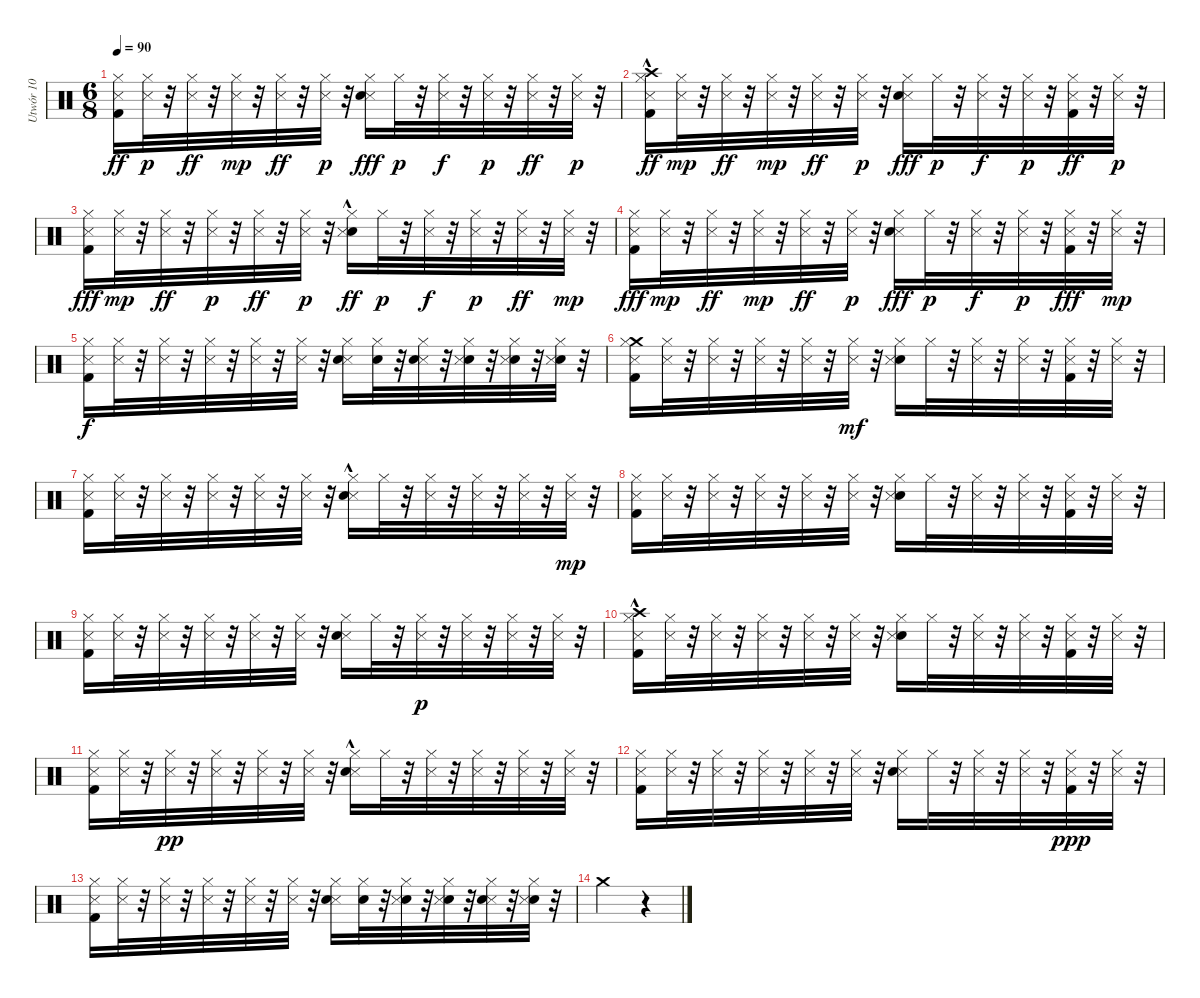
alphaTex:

\track ("Utwór 10" "Utwór 10") {instrument percussion}
\staff {score}
\articulation defaults
\ts (6 8)
\tempo 90
\clef neutral
\ks c
("Kick (hit) 2" "Snare (side stick) 3" "Hi-Hat (closed)").16{dy ff} ("Snare (side stick) 3" "Hi-Hat (closed)").32{dy p} r.32 ("Hi-Hat (closed)" "Snare (side stick) 3").32{dy ff} r.32 ("Hi-Hat (closed)" "Snare (side stick) 3").32{dy mp} r.32 ("Hi-Hat (closed)" "Snare (side stick) 3").32{dy ff} r.32 ("Snare (side stick) 3" "Hi-Hat (closed)").32{dy p} r.32 ("Snare (side stick) 3" "Snare (hit) 2" "Hi-Hat (closed)").16{dy fff} "Hi-Hat (closed)".32{dy p} r.32 ("Snare (side stick) 3" "Hi-Hat (closed)").32{dy f} r.32 ("Hi-Hat (closed)" "Snare (side stick) 3").32{dy p} r.32 ("Snare (side stick) 3" "Hi-Hat (closed)").32{dy ff} r.32 ("Snare (side stick) 3" "Hi-Hat (closed)").32{dy p} r.32 |
("Kick (hit) 2" "Hi-Hat (closed)" "Snare (side stick) 3" "Crash high (hit)"{hac}).16{dy ff} ("Hi-Hat (closed)" "Snare (side stick) 3").32{dy mp} r.32 ("Snare (side stick) 3" "Hi-Hat (closed)").32{dy ff} r.32 ("Hi-Hat (closed)" "Snare (side stick) 3").32{dy mp} r.32 ("Hi-Hat (closed)" "Snare (side stick) 3").32{dy ff} r.32 ("Snare (side stick) 3" "Hi-Hat (closed)").32{dy p} r.32 ("Snare (side stick) 3" "Hi-Hat (closed)" "Snare (hit) 2").16{dy fff} "Hi-Hat (closed)".32{dy p} r.32 ("Hi-Hat (closed)" "Snare (side stick) 3").32{dy f} r.32 ("Hi-Hat (closed)" "Snare (side stick) 3").32{dy p} r.32 ("Kick (hit) 2" "Snare (side stick) 3" "Hi-Hat (closed)").32{dy ff} r.32 ("Snare (side stick) 3" "Hi-Hat (closed)").32{dy p} r.32 |
("Hi-Hat (closed)" "Snare (side stick) 3" "Kick (hit) 2").16{dy fff} ("Hi-Hat (closed)" "Snare (side stick) 3").32{dy mp} r.32 ("Hi-Hat (closed)" "Snare (side stick) 3").32{dy ff} r.32 ("Snare (side stick) 3" "Hi-Hat (closed)").32{dy p} r.32 ("Hi-Hat (closed)" "Snare (side stick) 3").32{dy ff} r.32 ("Hi-Hat (closed)" "Snare (side stick) 3").32{dy p} r.32 ("Hi-Hat (closed)" "Snare (hit) 2"{hac} "Snare (side stick) 3").16{dy ff} "Hi-Hat (closed)".32{dy p} r.32 ("Snare (side stick) 3" "Hi-Hat (closed)").32{dy f} r.32 ("Hi-Hat (closed)" "Snare (side stick) 3").32{dy p} r.32 ("Snare (side stick) 3" "Hi-Hat (closed)").32{dy ff} r.32 ("Hi-Hat (closed)" "Snare (side stick) 3").32{dy mp} r.32 |
("Hi-Hat (closed)" "Snare (side stick) 3" "Kick (hit) 2").16{dy fff} ("Hi-Hat (closed)" "Snare (side stick) 3").32{dy mp} r.32 ("Hi-Hat (closed)" "Snare (side stick) 3").32{dy ff} r.32 ("Hi-Hat (closed)" "Snare (side stick) 3").32{dy mp} r.32 ("Hi-Hat (closed)" "Snare (side stick) 3").32{dy ff} r.32 ("Hi-Hat (closed)" "Snare (side stick) 3").32{dy p} r.32 ("Hi-Hat (closed)" "Snare (side stick) 3" "Snare (hit) 2").16{dy fff} "Hi-Hat (closed)".32{dy p} r.32 ("Hi-Hat (closed)" "Snare (side stick) 3").32{dy f} r.32 ("Hi-Hat (closed)" "Snare (side stick) 3").32{dy p} r.32 ("Hi-Hat (closed)" "Snare (side stick) 3" "Kick (hit) 2").32{dy fff} r.32 ("Hi-Hat (closed)" "Snare (side stick) 3").32{dy mp} r.32 |
("Hi-Hat (closed)" "Snare (side stick) 3" "Kick (hit) 2").16{dy f} ("Snare (side stick) 3" "Hi-Hat (closed)").32 r.32 ("Hi-Hat (closed)" "Snare (side stick) 3").32 r.32 ("Hi-Hat (closed)" "Snare (side stick) 3").32 r.32 ("Snare (side stick) 3" "Hi-Hat (closed)").32 r.32 ("Hi-Hat (closed)" "Snare (side stick) 3").32 r.32 ("Snare (side stick) 3" "Snare (hit) 2" "Hi-Hat (closed)").16 ("Snare (hit) 2" "Hi-Hat (closed)").32 r.32 ("Snare (side stick) 3" "Snare (hit) 2" "Hi-Hat (closed)").32 r.32 ("Hi-Hat (closed)" "Snare (hit) 2" "Snare (side stick) 3").32 r.32 ("Snare (hit) 2" "Snare (side stick) 3" "Hi-Hat (closed)").32 r.32 ("Hi-Hat (closed)" "Snare (hit) 2" "Snare (side stick) 3").32 r.32 |
("Kick (hit) 2" "Crash medium (hit)" "Snare (side stick) 3" "Hi-Hat (closed)").16 ("Snare (side stick) 3" "Hi-Hat (closed)").32 r.32 ("Hi-Hat (closed)" "Snare (side stick) 3").32 r.32 ("Snare (side stick) 3" "Hi-Hat (closed)").32 r.32 ("Snare (side stick) 3" "Hi-Hat (closed)").32 r.32 ("Snare (side stick) 3" "Hi-Hat (closed)").32{dy mf} r.32 ("Hi-Hat (closed)" "Snare (hit) 2" "Snare (side stick) 3").16 "Hi-Hat (closed)".32 r.32 ("Snare (side stick) 3" "Hi-Hat (closed)").32 r.32 ("Hi-Hat (closed)" "Snare (side stick) 3").32 r.32 ("Kick (hit) 2" "Hi-Hat (closed)" "Snare (side stick) 3").32 r.32 ("Hi-Hat (closed)" "Snare (side stick) 3").32 r.32 |
("Kick (hit) 2" "Snare (side stick) 3" "Hi-Hat (closed)").16 ("Snare (side stick) 3" "Hi-Hat (closed)").32 r.32 ("Hi-Hat (closed)" "Snare (side stick) 3").32 r.32 ("Hi-Hat (closed)" "Snare (side stick) 3").32 r.32 ("Hi-Hat (closed)" "Snare (side stick) 3").32 r.32 ("Hi-Hat (closed)" "Snare (side stick) 3").32 r.32 ("Snare (side stick) 3" "Hi-Hat (closed)" "Snare (hit) 2"{hac}).16 "Hi-Hat (closed)".32 r.32 ("Hi-Hat (closed)" "Snare (side stick) 3").32 r.32 ("Hi-Hat (closed)" "Snare (side stick) 3").32 r.32 ("Hi-Hat (closed)" "Snare (side stick) 3").32 r.32 ("Hi-Hat (closed)" "Snare (side stick) 3").32{dy mp} r.32 |
("Kick (hit) 2" "Snare (side stick) 3" "Hi-Hat (closed)").16 ("Snare (side stick) 3" "Hi-Hat (closed)").32 r.32 ("Snare (side stick) 3" "Hi-Hat (closed)").32 r.32 ("Snare (side stick) 3" "Hi-Hat (closed)").32 r.32 ("Snare (side stick) 3" "Hi-Hat (closed)").32 r.32 ("Snare (side stick) 3" "Hi-Hat (closed)").32 r.32 ("Snare (hit) 2" "Hi-Hat (closed)" "Snare (side stick) 3").16 "Hi-Hat (closed)".32 r.32 ("Hi-Hat (closed)" "Snare (side stick) 3").32 r.32 ("Hi-Hat (closed)" "Snare (side stick) 3").32 r.32 ("Snare (side stick) 3" "Kick (hit) 2" "Hi-Hat (closed)").32 r.32 ("Hi-Hat (closed)" "Snare (side stick) 3").32 r.32 |
("Hi-Hat (closed)" "Snare (side stick) 3" "Kick (hit) 2").16 ("Hi-Hat (closed)" "Snare (side stick) 3").32 r.32 ("Snare (side stick) 3" "Hi-Hat (closed)").32 r.32 ("Hi-Hat (closed)" "Snare (side stick) 3").32 r.32 ("Snare (side stick) 3" "Hi-Hat (closed)").32 r.32 ("Snare (side stick) 3" "Hi-Hat (closed)").32 r.32 ("Snare (side stick) 3" "Snare (hit) 2" "Hi-Hat (closed)").16 "Hi-Hat (closed)".32 r.32 ("Hi-Hat (closed)" "Snare (side stick) 3").32{dy p} r.32 ("Snare (side stick) 3" "Hi-Hat (closed)").32 r.32 ("Snare (side stick) 3" "Hi-Hat (closed)").32 r.32 ("Snare (side stick) 3" "Hi-Hat (closed)").32 r.32 |
("Kick (hit) 2" "Snare (side stick) 3" "Crash high (hit)"{hac} "Hi-Hat (closed)").16 ("Snare (side stick) 3" "Hi-Hat (closed)").32 r.32 ("Hi-Hat (closed)" "Snare (side stick) 3").32 r.32 ("Snare (side stick) 3" "Hi-Hat (closed)").32 r.32 ("Snare (side stick) 3" "Hi-Hat (closed)").32 r.32 ("Hi-Hat (closed)" "Snare (side stick) 3").32 r.32 ("Snare (hit) 2" "Hi-Hat (closed)" "Snare (side stick) 3").16 "Hi-Hat (closed)".32 r.32 ("Hi-Hat (closed)" "Snare (side stick) 3").32 r.32 ("Hi-Hat (closed)" "Snare (side stick) 3").32 r.32 ("Kick (hit) 2" "Hi-Hat (closed)" "Snare (side stick) 3").32 r.32 ("Snare (side stick) 3" "Hi-Hat (closed)").32 r.32 |
("Kick (hit) 2" "Snare (side stick) 3" "Hi-Hat (closed)").16 ("Hi-Hat (closed)" "Snare (side stick) 3").32 r.32 ("Hi-Hat (closed)" "Snare (side stick) 3").32{dy pp} r.32 ("Hi-Hat (closed)" "Snare (side stick) 3").32 r.32 ("Snare (side stick) 3" "Hi-Hat (closed)").32 r.32 ("Snare (side stick) 3" "Hi-Hat (closed)").32 r.32 ("Snare (side stick) 3" "Snare (hit) 2"{hac} "Hi-Hat (closed)").16 "Hi-Hat (closed)".32 r.32 ("Hi-Hat (closed)" "Snare (side stick) 3").32 r.32 ("Hi-Hat (closed)" "Snare (side stick) 3").32 r.32 ("Hi-Hat (closed)" "Snare (side stick) 3").32 r.32 ("Snare (side stick) 3" "Hi-Hat (closed)").32 r.32 |
("Kick (hit) 2" "Snare (side stick) 3" "Hi-Hat (closed)").16 ("Snare (side stick) 3" "Hi-Hat (closed)").32 r.32 ("Snare (side stick) 3" "Hi-Hat (closed)").32 r.32 ("Hi-Hat (closed)" "Snare (side stick) 3").32 r.32 ("Hi-Hat (closed)" "Snare (side stick) 3").32 r.32 ("Hi-Hat (closed)" "Snare (side stick) 3").32 r.32 ("Snare (side stick) 3" "Hi-Hat (closed)" "Snare (hit) 2").16 "Hi-Hat (closed)".32 r.32 ("Snare (side stick) 3" "Hi-Hat (closed)").32 r.32 ("Snare (side stick) 3" "Hi-Hat (closed)").32 r.32 ("Snare (side stick) 3" "Hi-Hat (closed)" "Kick (hit) 2").32{dy ppp} r.32 ("Snare (side stick) 3" "Hi-Hat (closed)").32 r.32 |
("Hi-Hat (closed)" "Kick (hit) 2" "Snare (side stick) 3").16 ("Hi-Hat (closed)" "Snare (side stick) 3").32 r.32 ("Hi-Hat (closed)" "Snare (side stick) 3").32 r.32 ("Hi-Hat (closed)" "Snare (side stick) 3").32 r.32 ("Snare (side stick) 3" "Hi-Hat (closed)").32 r.32 ("Snare (side stick) 3" "Hi-Hat (closed)").32 r.32 ("Snare (side stick) 3" "Hi-Hat (closed)" "Snare (hit) 2").16 ("Snare (hit) 2" "Hi-Hat (closed)").32 r.32 ("Hi-Hat (closed)" "Snare (hit) 2" "Snare (side stick) 3").32 r.32 ("Snare (hit) 2" "Hi-Hat (closed)" "Snare (side stick) 3").32 r.32 ("Hi-Hat (closed)" "Snare (side stick) 3" "Snare (hit) 2").32 r.32 ("Snare (hit) 2" "Hi-Hat (closed)" "Snare (side stick) 3").32 r.32 |
"Crash medium (hit)".2 r.4
